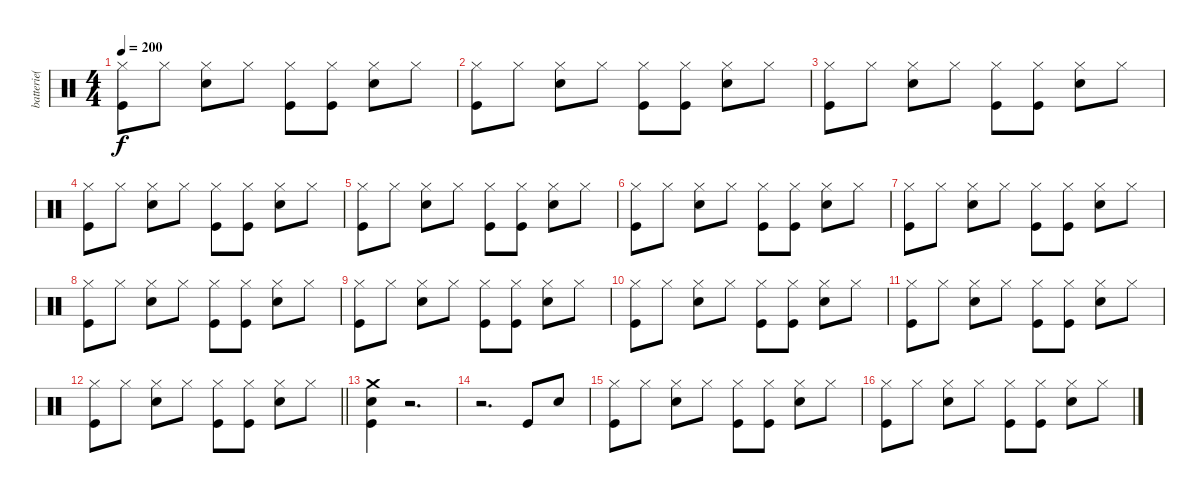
\track ("batterie( Guillaume ) " "batterie( ") {instrument percussion}
\staff {score}
\articulation defaults
\ts (4 4)
\tempo 200
\clef neutral
\ks c
("Hi-Hat (closed)" "Kick (hit)").8{dy f} "Hi-Hat (closed)".8 ("Hi-Hat (closed)" "Snare (hit) 2").8 "Hi-Hat (closed)".8 ("Hi-Hat (closed)" "Kick (hit)").8 ("Hi-Hat (closed)" "Kick (hit)").8 ("Hi-Hat (closed)" "Snare (hit) 2").8 "Hi-Hat (closed)".8 |
("Hi-Hat (closed)" "Kick (hit)").8 "Hi-Hat (closed)".8 ("Hi-Hat (closed)" "Snare (hit) 2").8 "Hi-Hat (closed)".8 ("Hi-Hat (closed)" "Kick (hit)").8 ("Hi-Hat (closed)" "Kick (hit)").8 ("Hi-Hat (closed)" "Snare (hit) 2").8 "Hi-Hat (closed)".8 |
("Hi-Hat (closed)" "Kick (hit)").8 "Hi-Hat (closed)".8 ("Hi-Hat (closed)" "Snare (hit) 2").8 "Hi-Hat (closed)".8 ("Hi-Hat (closed)" "Kick (hit)").8 ("Hi-Hat (closed)" "Kick (hit)").8 ("Hi-Hat (closed)" "Snare (hit) 2").8 "Hi-Hat (closed)".8 |
("Hi-Hat (closed)" "Kick (hit)").8 "Hi-Hat (closed)".8 ("Hi-Hat (closed)" "Snare (hit) 2").8 "Hi-Hat (closed)".8 ("Hi-Hat (closed)" "Kick (hit)").8 ("Hi-Hat (closed)" "Kick (hit)").8 ("Hi-Hat (closed)" "Snare (hit) 2").8 "Hi-Hat (closed)".8 |
("Hi-Hat (closed)" "Kick (hit)").8 "Hi-Hat (closed)".8 ("Hi-Hat (closed)" "Snare (hit) 2").8 "Hi-Hat (closed)".8 ("Hi-Hat (closed)" "Kick (hit)").8 ("Hi-Hat (closed)" "Kick (hit)").8 ("Hi-Hat (closed)" "Snare (hit) 2").8 "Hi-Hat (closed)".8 |
("Hi-Hat (closed)" "Kick (hit)").8 "Hi-Hat (closed)".8 ("Hi-Hat (closed)" "Snare (hit) 2").8 "Hi-Hat (closed)".8 ("Hi-Hat (closed)" "Kick (hit)").8 ("Hi-Hat (closed)" "Kick (hit)").8 ("Hi-Hat (closed)" "Snare (hit) 2").8 "Hi-Hat (closed)".8 |
("Hi-Hat (closed)" "Kick (hit)").8 "Hi-Hat (closed)".8 ("Hi-Hat (closed)" "Snare (hit) 2").8 "Hi-Hat (closed)".8 ("Hi-Hat (closed)" "Kick (hit)").8 ("Hi-Hat (closed)" "Kick (hit)").8 ("Hi-Hat (closed)" "Snare (hit) 2").8 "Hi-Hat (closed)".8 |
("Hi-Hat (closed)" "Kick (hit)").8 "Hi-Hat (closed)".8 ("Hi-Hat (closed)" "Snare (hit) 2").8 "Hi-Hat (closed)".8 ("Hi-Hat (closed)" "Kick (hit)").8 ("Hi-Hat (closed)" "Kick (hit)").8 ("Hi-Hat (closed)" "Snare (hit) 2").8 "Hi-Hat (closed)".8 |
("Hi-Hat (closed)" "Kick (hit)").8 "Hi-Hat (closed)".8 ("Hi-Hat (closed)" "Snare (hit) 2").8 "Hi-Hat (closed)".8 ("Hi-Hat (closed)" "Kick (hit)").8 ("Hi-Hat (closed)" "Kick (hit)").8 ("Hi-Hat (closed)" "Snare (hit) 2").8 "Hi-Hat (closed)".8 |
("Hi-Hat (closed)" "Kick (hit)").8 "Hi-Hat (closed)".8 ("Hi-Hat (closed)" "Snare (hit) 2").8 "Hi-Hat (closed)".8 ("Hi-Hat (closed)" "Kick (hit)").8 ("Hi-Hat (closed)" "Kick (hit)").8 ("Hi-Hat (closed)" "Snare (hit) 2").8 "Hi-Hat (closed)".8 |
("Hi-Hat (closed)" "Kick (hit)").8 "Hi-Hat (closed)".8 ("Hi-Hat (closed)" "Snare (hit) 2").8 "Hi-Hat (closed)".8 ("Hi-Hat (closed)" "Kick (hit)").8 ("Hi-Hat (closed)" "Kick (hit)").8 ("Hi-Hat (closed)" "Snare (hit) 2").8 "Hi-Hat (closed)".8 |
\barLineRight lightlight
("Hi-Hat (closed)" "Kick (hit)").8 "Hi-Hat (closed)".8 ("Hi-Hat (closed)" "Snare (hit) 2").8 "Hi-Hat (closed)".8 ("Hi-Hat (closed)" "Kick (hit)").8 ("Hi-Hat (closed)" "Kick (hit)").8 ("Hi-Hat (closed)" "Snare (hit) 2").8 "Hi-Hat (closed)".8 |
("Crash medium (hit)" "Snare (hit) 2" "Kick (hit)").4 r.2{d} |
r.2{d} "Kick (hit)".8 "Snare (hit) 2".8 |
("Hi-Hat (closed)" "Kick (hit)").8 "Hi-Hat (closed)".8 ("Hi-Hat (closed)" "Snare (hit) 2").8 "Hi-Hat (closed)".8 ("Hi-Hat (closed)" "Kick (hit)").8 ("Hi-Hat (closed)" "Kick (hit)").8 ("Hi-Hat (closed)" "Snare (hit) 2").8 "Hi-Hat (closed)".8 |
("Hi-Hat (closed)" "Kick (hit)").8 "Hi-Hat (closed)".8 ("Hi-Hat (closed)" "Snare (hit) 2").8 "Hi-Hat (closed)".8 ("Hi-Hat (closed)" "Kick (hit)").8 ("Hi-Hat (closed)" "Kick (hit)").8 ("Hi-Hat (closed)" "Snare (hit) 2").8 "Hi-Hat (closed)".8
